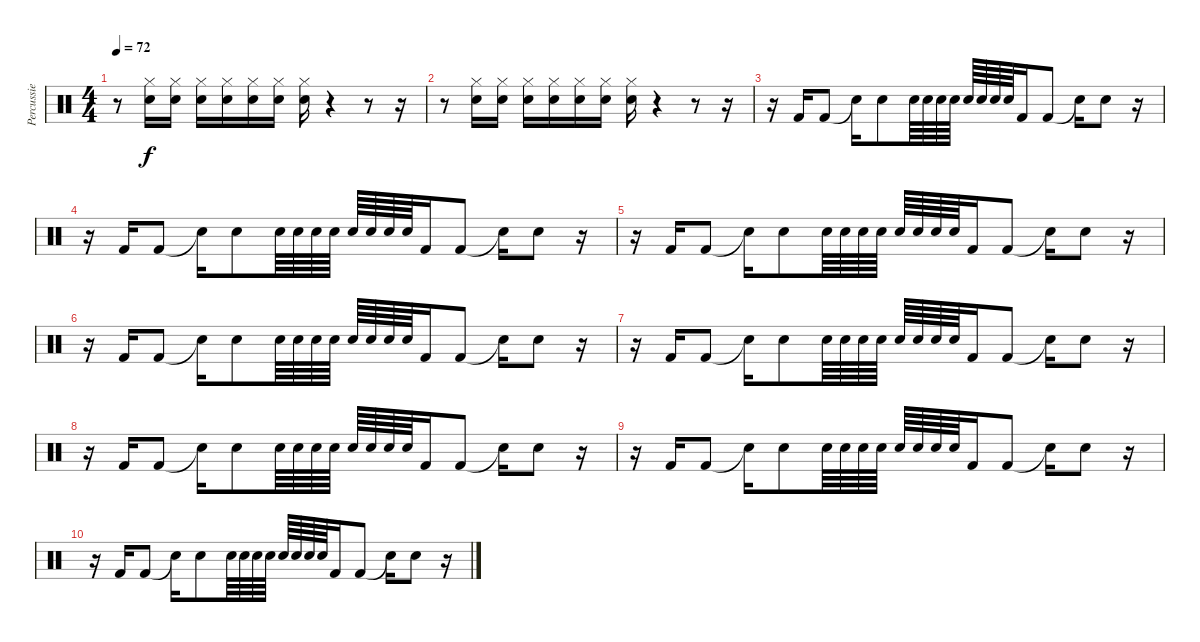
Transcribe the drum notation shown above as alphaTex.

\track ("Percussie" "Percussie") {instrument percussion}
\staff {score}
\articulation defaults
\ts (4 4)
\tempo 72
\clef neutral
\ks c
r.8{dy f} ("Hi-Hat (closed)" "Electric Snare (hit)").16 ("Hi-Hat (closed)" "Electric Snare (hit)").16 ("Hi-Hat (closed)" "Electric Snare (hit)").16 ("Hi-Hat (closed)" "Electric Snare (hit)").16 ("Hi-Hat (closed)" "Electric Snare (hit)").16 ("Hi-Hat (closed)" "Electric Snare (hit)").16 ("Hi-Hat (closed)" "Electric Snare (hit)").16 r.4 r.8 r.16 |
r.8 ("Hi-Hat (closed)" "Electric Snare (hit)").16 ("Hi-Hat (closed)" "Electric Snare (hit)").16 ("Hi-Hat (closed)" "Electric Snare (hit)").16 ("Hi-Hat (closed)" "Electric Snare (hit)").16 ("Hi-Hat (closed)" "Electric Snare (hit)").16 ("Hi-Hat (closed)" "Electric Snare (hit)").16 ("Hi-Hat (closed)" "Electric Snare (hit)").16 r.4 r.8 r.16 |
r.16 "Kick (hit) 2".16 "Kick (hit) 2".8 "Snare (hit)"{t}.16 "Electric Snare (hit)".8 "Electric Snare (hit)".64 "Electric Snare (hit)".64 "Electric Snare (hit)".64 "Electric Snare (hit)".64 "Electric Snare (hit)".64 "Electric Snare (hit)".64 "Electric Snare (hit)".64 "Electric Snare (hit)".64 "Kick (hit) 2".16 "Kick (hit) 2".8 "Electric Snare (hit)"{t}.16 "Electric Snare (hit)".8 r.16 |
r.16 "Kick (hit) 2".16 "Kick (hit) 2".8 "Snare (hit)"{t}.16 "Electric Snare (hit)".8 "Electric Snare (hit)".64 "Electric Snare (hit)".64 "Electric Snare (hit)".64 "Electric Snare (hit)".64 "Electric Snare (hit)".64 "Electric Snare (hit)".64 "Electric Snare (hit)".64 "Electric Snare (hit)".64 "Kick (hit) 2".16 "Kick (hit) 2".8 "Electric Snare (hit)"{t}.16 "Electric Snare (hit)".8 r.16 |
r.16 "Kick (hit) 2".16 "Kick (hit) 2".8 "Snare (hit)"{t}.16 "Electric Snare (hit)".8 "Electric Snare (hit)".64 "Electric Snare (hit)".64 "Electric Snare (hit)".64 "Electric Snare (hit)".64 "Electric Snare (hit)".64 "Electric Snare (hit)".64 "Electric Snare (hit)".64 "Electric Snare (hit)".64 "Kick (hit) 2".16 "Kick (hit) 2".8 "Electric Snare (hit)"{t}.16 "Electric Snare (hit)".8 r.16 |
r.16 "Kick (hit) 2".16 "Kick (hit) 2".8 "Snare (hit)"{t}.16 "Electric Snare (hit)".8 "Electric Snare (hit)".64 "Electric Snare (hit)".64 "Electric Snare (hit)".64 "Electric Snare (hit)".64 "Electric Snare (hit)".64 "Electric Snare (hit)".64 "Electric Snare (hit)".64 "Electric Snare (hit)".64 "Kick (hit) 2".16 "Kick (hit) 2".8 "Electric Snare (hit)"{t}.16 "Electric Snare (hit)".8 r.16 |
r.16 "Kick (hit) 2".16 "Kick (hit) 2".8 "Snare (hit)"{t}.16 "Electric Snare (hit)".8 "Electric Snare (hit)".64 "Electric Snare (hit)".64 "Electric Snare (hit)".64 "Electric Snare (hit)".64 "Electric Snare (hit)".64 "Electric Snare (hit)".64 "Electric Snare (hit)".64 "Electric Snare (hit)".64 "Kick (hit) 2".16 "Kick (hit) 2".8 "Electric Snare (hit)"{t}.16 "Electric Snare (hit)".8 r.16 |
r.16 "Kick (hit) 2".16 "Kick (hit) 2".8 "Snare (hit)"{t}.16 "Electric Snare (hit)".8 "Electric Snare (hit)".64 "Electric Snare (hit)".64 "Electric Snare (hit)".64 "Electric Snare (hit)".64 "Electric Snare (hit)".64 "Electric Snare (hit)".64 "Electric Snare (hit)".64 "Electric Snare (hit)".64 "Kick (hit) 2".16 "Kick (hit) 2".8 "Electric Snare (hit)"{t}.16 "Electric Snare (hit)".8 r.16 |
r.16 "Kick (hit) 2".16 "Kick (hit) 2".8 "Snare (hit)"{t}.16 "Electric Snare (hit)".8 "Electric Snare (hit)".64 "Electric Snare (hit)".64 "Electric Snare (hit)".64 "Electric Snare (hit)".64 "Electric Snare (hit)".64 "Electric Snare (hit)".64 "Electric Snare (hit)".64 "Electric Snare (hit)".64 "Kick (hit) 2".16 "Kick (hit) 2".8 "Electric Snare (hit)"{t}.16 "Electric Snare (hit)".8 r.16 |
r.16 "Kick (hit) 2".16 "Kick (hit) 2".8 "Snare (hit)"{t}.16 "Electric Snare (hit)".8 "Electric Snare (hit)".64 "Electric Snare (hit)".64 "Electric Snare (hit)".64 "Electric Snare (hit)".64 "Electric Snare (hit)".64 "Electric Snare (hit)".64 "Electric Snare (hit)".64 "Electric Snare (hit)".64 "Kick (hit) 2".16 "Kick (hit) 2".8 "Electric Snare (hit)"{t}.16 "Electric Snare (hit)".8 r.16
